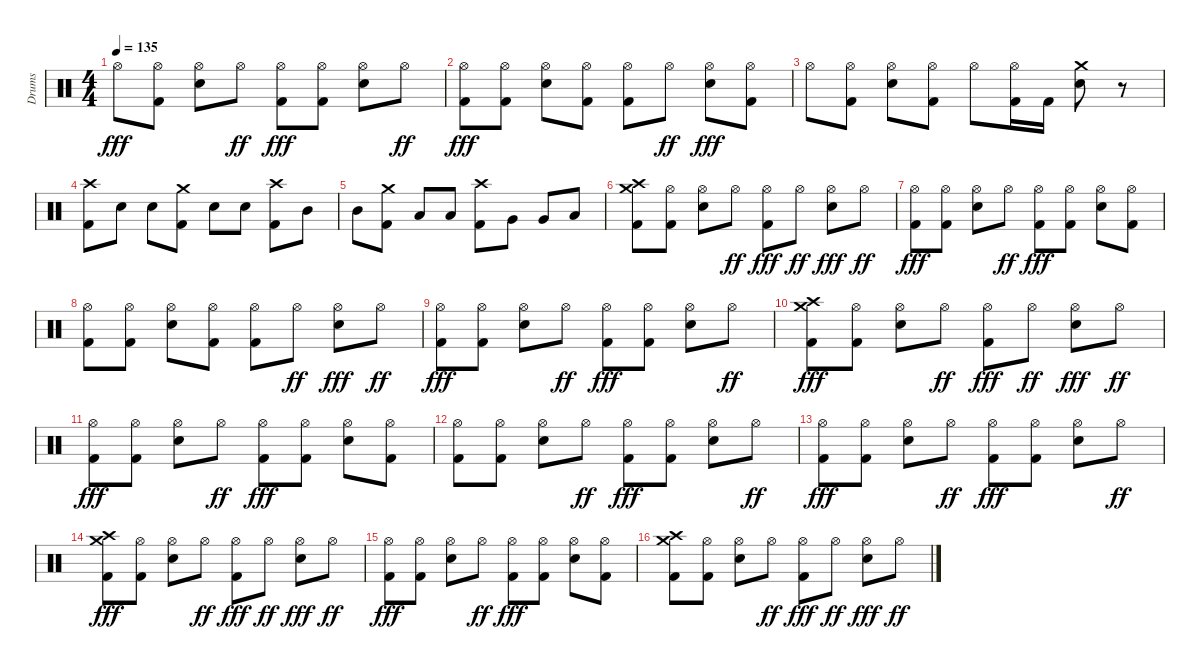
\track ("Drums" "Drums") {instrument percussion}
\staff {score}
\articulation defaults
\ts (4 4)
\tempo 135
\clef neutral
\ks c "Hi-Hat (open)".8{dy fff}
("Hi-Hat (open)" "Kick (hit) 2").8 ("Hi-Hat (open)" "Snare (hit) 2").8 "Hi-Hat (open)".8{dy ff} ("Hi-Hat (open)" "Kick (hit) 2").8{dy fff} ("Hi-Hat (open)" "Kick (hit) 2").8 ("Hi-Hat (open)" "Snare (hit) 2").8 "Hi-Hat (open)".8{dy ff} |
("Hi-Hat (open)" "Kick (hit) 2").8{dy fff} ("Hi-Hat (open)" "Kick (hit) 2").8 ("Hi-Hat (open)" "Snare (hit) 2").8 ("Hi-Hat (open)" "Kick (hit) 2").8 ("Hi-Hat (open)" "Kick (hit) 2").8 "Hi-Hat (open)".8{dy ff} ("Hi-Hat (open)" "Snare (hit) 2").8{dy fff} ("Hi-Hat (open)" "Kick (hit) 2").8 |
"Hi-Hat (open)".8 ("Hi-Hat (open)" "Kick (hit) 2").8 ("Hi-Hat (open)" "Snare (hit) 2").8 ("Hi-Hat (open)" "Kick (hit) 2").8 "Hi-Hat (open)".8 ("Hi-Hat (open)" "Kick (hit) 2").16 "Kick (hit) 2".16 ("Crash medium (hit)" "Snare (hit) 2").8 r.8 |
("Kick (hit) 2" "Crash high (hit)").8 "Snare (hit) 2".8 "Snare (hit) 2".8 ("Crash medium (hit)" "Kick (hit) 2").8 "Snare (hit) 2".8 "Snare (hit) 2".8 ("Crash high (hit)" "Kick (hit) 2").8 "Mid Tom (hit)".8 |
"Mid Tom (hit)".8 ("Crash medium (hit)" "Kick (hit) 2").8 "Low Tom (hit)".8 "Low Tom (hit)".8 ("Crash high (hit)" "Kick (hit) 2").8 "Very Low Tom (hit)".8 "Very Low Tom (hit)".8 "Low Floor Tom (hit)".8 |
("Crash high (hit)" "Crash medium (hit)" "Kick (hit) 2").8 ("Hi-Hat (open)" "Kick (hit) 2").8 ("Hi-Hat (open)" "Snare (hit) 2").8 "Hi-Hat (open)".8{dy ff} ("Hi-Hat (open)" "Kick (hit) 2").8{dy fff} "Hi-Hat (open)".8{dy ff} ("Hi-Hat (open)" "Snare (hit) 2").8{dy fff} "Hi-Hat (open)".8{dy ff} |
("Hi-Hat (open)" "Kick (hit) 2").8{dy fff} ("Hi-Hat (open)" "Kick (hit) 2").8 ("Hi-Hat (open)" "Snare (hit) 2").8 "Hi-Hat (open)".8{dy ff} ("Hi-Hat (open)" "Kick (hit) 2").8{dy fff} ("Hi-Hat (open)" "Kick (hit) 2").8 ("Hi-Hat (open)" "Snare (hit) 2").8 ("Hi-Hat (open)" "Kick (hit) 2").8 |
("Hi-Hat (open)" "Kick (hit) 2").8 ("Hi-Hat (open)" "Kick (hit) 2").8 ("Hi-Hat (open)" "Snare (hit) 2").8 ("Hi-Hat (open)" "Kick (hit) 2").8 ("Hi-Hat (open)" "Kick (hit) 2").8 "Hi-Hat (open)".8{dy ff} ("Hi-Hat (open)" "Snare (hit) 2").8{dy fff} "Hi-Hat (open)".8{dy ff} |
("Hi-Hat (open)" "Kick (hit) 2").8{dy fff} ("Hi-Hat (open)" "Kick (hit) 2").8 ("Hi-Hat (open)" "Snare (hit) 2").8 "Hi-Hat (open)".8{dy ff} ("Hi-Hat (open)" "Kick (hit) 2").8{dy fff} ("Hi-Hat (open)" "Kick (hit) 2").8 ("Hi-Hat (open)" "Snare (hit) 2").8 "Hi-Hat (open)".8{dy ff} |
("Crash high (hit)" "Crash medium (hit)" "Kick (hit) 2").8{dy fff} ("Hi-Hat (open)" "Kick (hit) 2").8 ("Hi-Hat (open)" "Snare (hit) 2").8 "Hi-Hat (open)".8{dy ff} ("Hi-Hat (open)" "Kick (hit) 2").8{dy fff} "Hi-Hat (open)".8{dy ff} ("Hi-Hat (open)" "Snare (hit) 2").8{dy fff} "Hi-Hat (open)".8{dy ff} |
("Hi-Hat (open)" "Kick (hit) 2").8{dy fff} ("Hi-Hat (open)" "Kick (hit) 2").8 ("Hi-Hat (open)" "Snare (hit) 2").8 "Hi-Hat (open)".8{dy ff} ("Hi-Hat (open)" "Kick (hit) 2").8{dy fff} ("Hi-Hat (open)" "Kick (hit) 2").8 ("Hi-Hat (open)" "Snare (hit) 2").8 ("Hi-Hat (open)" "Kick (hit) 2").8 |
("Hi-Hat (open)" "Kick (hit) 2").8 ("Hi-Hat (open)" "Kick (hit) 2").8 ("Hi-Hat (open)" "Snare (hit) 2").8 "Hi-Hat (open)".8{dy ff} ("Hi-Hat (open)" "Kick (hit) 2").8{dy fff} ("Hi-Hat (open)" "Kick (hit) 2").8 ("Hi-Hat (open)" "Snare (hit) 2").8 "Hi-Hat (open)".8{dy ff} |
("Hi-Hat (open)" "Kick (hit) 2").8{dy fff} ("Hi-Hat (open)" "Kick (hit) 2").8 ("Hi-Hat (open)" "Snare (hit) 2").8 "Hi-Hat (open)".8{dy ff} ("Hi-Hat (open)" "Kick (hit) 2").8{dy fff} ("Hi-Hat (open)" "Kick (hit) 2").8 ("Hi-Hat (open)" "Snare (hit) 2").8 "Hi-Hat (open)".8{dy ff} |
("Crash high (hit)" "Crash medium (hit)" "Kick (hit) 2").8{dy fff} ("Hi-Hat (open)" "Kick (hit) 2").8 ("Hi-Hat (open)" "Snare (hit) 2").8 "Hi-Hat (open)".8{dy ff} ("Hi-Hat (open)" "Kick (hit) 2").8{dy fff} "Hi-Hat (open)".8{dy ff} ("Hi-Hat (open)" "Snare (hit) 2").8{dy fff} "Hi-Hat (open)".8{dy ff} |
("Hi-Hat (open)" "Kick (hit) 2").8{dy fff} ("Hi-Hat (open)" "Kick (hit) 2").8 ("Hi-Hat (open)" "Snare (hit) 2").8 "Hi-Hat (open)".8{dy ff} ("Hi-Hat (open)" "Kick (hit) 2").8{dy fff} ("Hi-Hat (open)" "Kick (hit) 2").8 ("Hi-Hat (open)" "Snare (hit) 2").8 ("Hi-Hat (open)" "Kick (hit) 2").8 |
("Crash high (hit)" "Crash medium (hit)" "Kick (hit) 2").8 ("Hi-Hat (open)" "Kick (hit) 2").8 ("Hi-Hat (open)" "Snare (hit) 2").8 "Hi-Hat (open)".8{dy ff} ("Hi-Hat (open)" "Kick (hit) 2").8{dy fff} "Hi-Hat (open)".8{dy ff} ("Hi-Hat (open)" "Snare (hit) 2").8{dy fff} "Hi-Hat (open)".8{dy ff}
